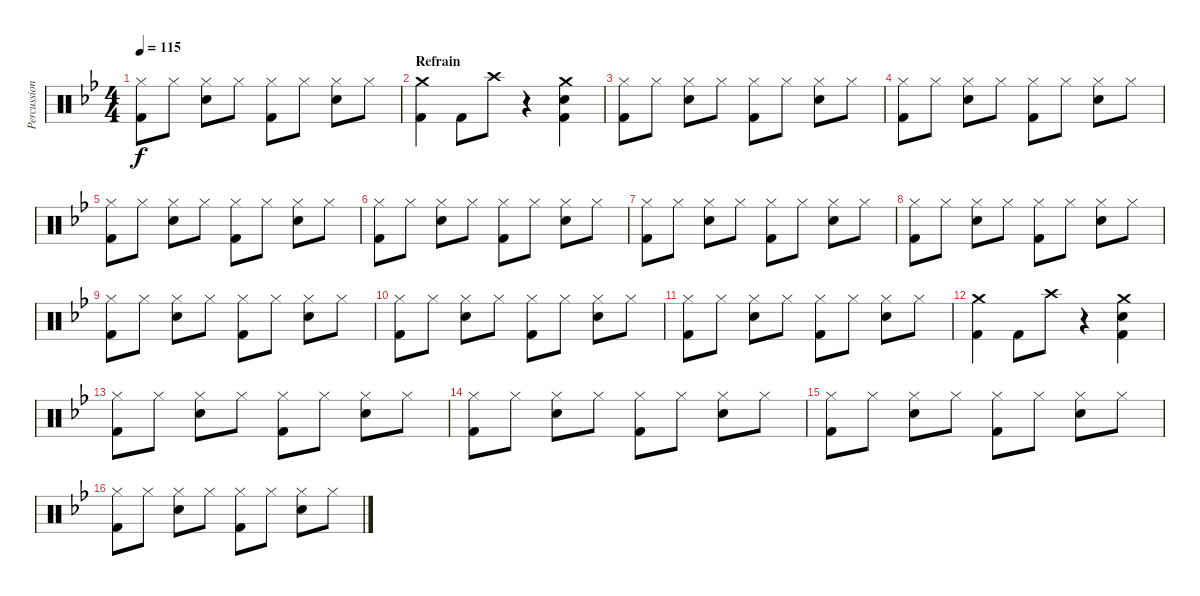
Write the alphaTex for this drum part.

\track ("Percussions" "Percussion") {instrument percussion}
\staff {score}
\articulation defaults
\ts (4 4)
\tempo 115
\clef neutral
\ks bb
("Hi-Hat (closed)" "Kick (hit) 2").8{dy f} "Hi-Hat (closed)".8 ("Hi-Hat (closed)" "Electric Snare (hit)").8 "Hi-Hat (closed)".8 ("Hi-Hat (closed)" "Kick (hit) 2").8 "Hi-Hat (closed)".8 ("Hi-Hat (closed)" "Electric Snare (hit)").8 "Hi-Hat (closed)".8 |
\section ("" "Refrain")
("Crash medium (hit)" "Kick (hit) 2").4 "Kick (hit) 2".8 "Crash high (hit)".8 r.4 ("Crash medium (hit)" "Electric Snare (hit)" "Kick (hit) 2").4 |
("Hi-Hat (closed)" "Kick (hit) 2").8 "Hi-Hat (closed)".8 ("Hi-Hat (closed)" "Electric Snare (hit)").8 "Hi-Hat (closed)".8 ("Hi-Hat (closed)" "Kick (hit) 2").8 "Hi-Hat (closed)".8 ("Hi-Hat (closed)" "Electric Snare (hit)").8 "Hi-Hat (closed)".8 |
("Hi-Hat (closed)" "Kick (hit) 2").8 "Hi-Hat (closed)".8 ("Hi-Hat (closed)" "Electric Snare (hit)").8 "Hi-Hat (closed)".8 ("Hi-Hat (closed)" "Kick (hit) 2").8 "Hi-Hat (closed)".8 ("Hi-Hat (closed)" "Electric Snare (hit)").8 "Hi-Hat (closed)".8 |
("Hi-Hat (closed)" "Kick (hit) 2").8 "Hi-Hat (closed)".8 ("Hi-Hat (closed)" "Electric Snare (hit)").8 "Hi-Hat (closed)".8 ("Hi-Hat (closed)" "Kick (hit) 2").8 "Hi-Hat (closed)".8 ("Hi-Hat (closed)" "Electric Snare (hit)").8 "Hi-Hat (closed)".8 |
("Hi-Hat (closed)" "Kick (hit) 2").8 "Hi-Hat (closed)".8 ("Hi-Hat (closed)" "Electric Snare (hit)").8 "Hi-Hat (closed)".8 ("Hi-Hat (closed)" "Kick (hit) 2").8 "Hi-Hat (closed)".8 ("Hi-Hat (closed)" "Electric Snare (hit)").8 "Hi-Hat (closed)".8 |
("Hi-Hat (closed)" "Kick (hit) 2").8 "Hi-Hat (closed)".8 ("Hi-Hat (closed)" "Electric Snare (hit)").8 "Hi-Hat (closed)".8 ("Hi-Hat (closed)" "Kick (hit) 2").8 "Hi-Hat (closed)".8 ("Hi-Hat (closed)" "Electric Snare (hit)").8 "Hi-Hat (closed)".8 |
("Hi-Hat (closed)" "Kick (hit) 2").8 "Hi-Hat (closed)".8 ("Hi-Hat (closed)" "Electric Snare (hit)").8 "Hi-Hat (closed)".8 ("Hi-Hat (closed)" "Kick (hit) 2").8 "Hi-Hat (closed)".8 ("Hi-Hat (closed)" "Electric Snare (hit)").8 "Hi-Hat (closed)".8 |
("Hi-Hat (closed)" "Kick (hit) 2").8 "Hi-Hat (closed)".8 ("Hi-Hat (closed)" "Electric Snare (hit)").8 "Hi-Hat (closed)".8 ("Hi-Hat (closed)" "Kick (hit) 2").8 "Hi-Hat (closed)".8 ("Hi-Hat (closed)" "Electric Snare (hit)").8 "Hi-Hat (closed)".8 |
("Hi-Hat (closed)" "Kick (hit) 2").8 "Hi-Hat (closed)".8 ("Hi-Hat (closed)" "Electric Snare (hit)").8 "Hi-Hat (closed)".8 ("Hi-Hat (closed)" "Kick (hit) 2").8 "Hi-Hat (closed)".8 ("Hi-Hat (closed)" "Electric Snare (hit)").8 "Hi-Hat (closed)".8 |
("Hi-Hat (closed)" "Kick (hit) 2").8 "Hi-Hat (closed)".8 ("Hi-Hat (closed)" "Electric Snare (hit)").8 "Hi-Hat (closed)".8 ("Hi-Hat (closed)" "Kick (hit) 2").8 "Hi-Hat (closed)".8 ("Hi-Hat (closed)" "Electric Snare (hit)").8 "Hi-Hat (closed)".8 |
("Crash medium (hit)" "Kick (hit) 2").4 "Kick (hit) 2".8 "Crash high (hit)".8 r.4 ("Crash medium (hit)" "Electric Snare (hit)" "Kick (hit) 2").4 |
("Hi-Hat (closed)" "Kick (hit) 2").8 "Hi-Hat (closed)".8 ("Hi-Hat (closed)" "Electric Snare (hit)").8 "Hi-Hat (closed)".8 ("Hi-Hat (closed)" "Kick (hit) 2").8 "Hi-Hat (closed)".8 ("Hi-Hat (closed)" "Electric Snare (hit)").8 "Hi-Hat (closed)".8 |
("Hi-Hat (closed)" "Kick (hit) 2").8 "Hi-Hat (closed)".8 ("Hi-Hat (closed)" "Electric Snare (hit)").8 "Hi-Hat (closed)".8 ("Hi-Hat (closed)" "Kick (hit) 2").8 "Hi-Hat (closed)".8 ("Hi-Hat (closed)" "Electric Snare (hit)").8 "Hi-Hat (closed)".8 |
("Hi-Hat (closed)" "Kick (hit) 2").8 "Hi-Hat (closed)".8 ("Hi-Hat (closed)" "Electric Snare (hit)").8 "Hi-Hat (closed)".8 ("Hi-Hat (closed)" "Kick (hit) 2").8 "Hi-Hat (closed)".8 ("Hi-Hat (closed)" "Electric Snare (hit)").8 "Hi-Hat (closed)".8 |
("Hi-Hat (closed)" "Kick (hit) 2").8 "Hi-Hat (closed)".8 ("Hi-Hat (closed)" "Electric Snare (hit)").8 "Hi-Hat (closed)".8 ("Hi-Hat (closed)" "Kick (hit) 2").8 "Hi-Hat (closed)".8 ("Hi-Hat (closed)" "Electric Snare (hit)").8 "Hi-Hat (closed)".8
